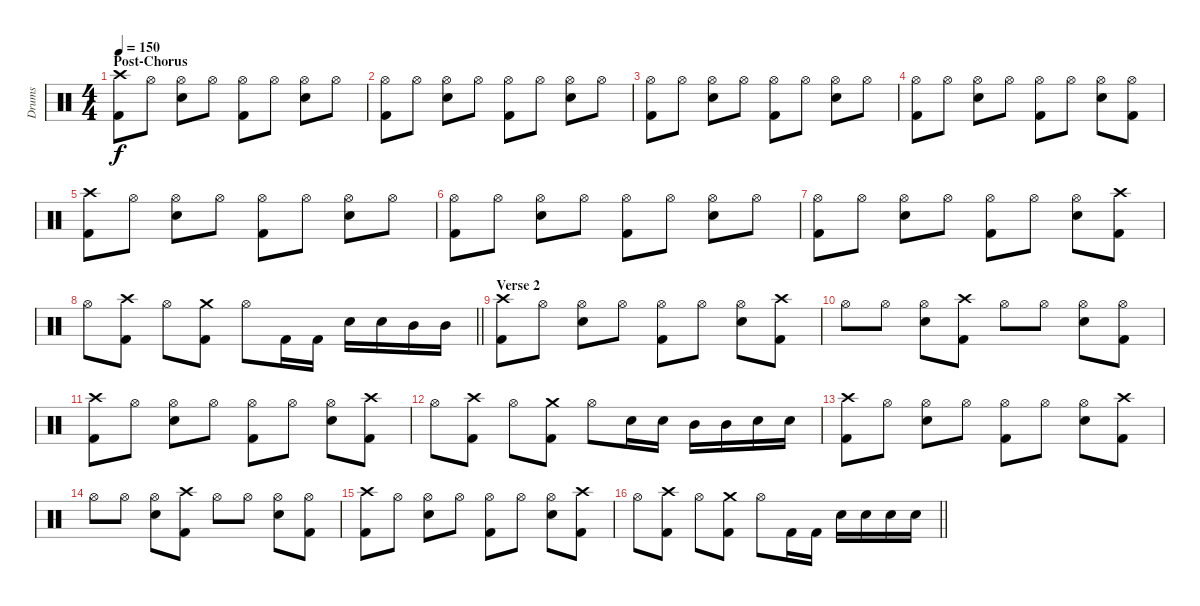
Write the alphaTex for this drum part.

\track ("Drums" "Drums") {instrument percussion}
\staff {score}
\articulation defaults
\ts (4 4)
\section ("" "Post-Chorus")
\tempo 150
\clef neutral
\ks c
("Crash high (hit)" "Kick (hit) 2").8{dy f volume 11} "Hi-Hat (open)".8 ("Hi-Hat (open)" "Electric Snare (hit)").8 "Hi-Hat (open)".8 ("Hi-Hat (open)" "Kick (hit) 2").8 "Hi-Hat (open)".8 ("Hi-Hat (open)" "Electric Snare (hit)").8 "Hi-Hat (open)".8 |
("Hi-Hat (open)" "Kick (hit) 2").8 "Hi-Hat (open)".8 ("Hi-Hat (open)" "Electric Snare (hit)").8 "Hi-Hat (open)".8 ("Hi-Hat (open)" "Kick (hit) 2").8 "Hi-Hat (open)".8 ("Hi-Hat (open)" "Electric Snare (hit)").8 "Hi-Hat (open)".8 |
("Hi-Hat (open)" "Kick (hit) 2").8 "Hi-Hat (open)".8 ("Hi-Hat (open)" "Electric Snare (hit)").8 "Hi-Hat (open)".8 ("Hi-Hat (open)" "Kick (hit) 2").8 "Hi-Hat (open)".8 ("Hi-Hat (open)" "Electric Snare (hit)").8 "Hi-Hat (open)".8 |
("Hi-Hat (open)" "Kick (hit) 2").8 "Hi-Hat (open)".8 ("Hi-Hat (open)" "Electric Snare (hit)").8 "Hi-Hat (open)".8 ("Hi-Hat (open)" "Kick (hit) 2").8 "Hi-Hat (open)".8 ("Hi-Hat (open)" "Electric Snare (hit)").8 ("Hi-Hat (open)" "Kick (hit) 2").8 |
("Crash high (hit)" "Kick (hit) 2").8 "Hi-Hat (open)".8 ("Hi-Hat (open)" "Electric Snare (hit)").8 "Hi-Hat (open)".8 ("Hi-Hat (open)" "Kick (hit) 2").8 "Hi-Hat (open)".8 ("Hi-Hat (open)" "Electric Snare (hit)").8 "Hi-Hat (open)".8 |
("Hi-Hat (open)" "Kick (hit) 2").8 "Hi-Hat (open)".8 ("Hi-Hat (open)" "Electric Snare (hit)").8 "Hi-Hat (open)".8 ("Hi-Hat (open)" "Kick (hit) 2").8 "Hi-Hat (open)".8 ("Hi-Hat (open)" "Electric Snare (hit)").8 "Hi-Hat (open)".8 |
("Hi-Hat (open)" "Kick (hit) 2").8 "Hi-Hat (open)".8 ("Hi-Hat (open)" "Electric Snare (hit)").8 "Hi-Hat (open)".8 ("Hi-Hat (open)" "Kick (hit) 2").8 "Hi-Hat (open)".8 ("Hi-Hat (open)" "Electric Snare (hit)").8 ("Crash high (hit)" "Kick (hit) 2").8 |
\barLineRight lightlight "Hi-Hat (open)".8
("Crash high (hit)" "Kick (hit) 2").8 "Hi-Hat (open)".8 ("Crash medium (hit)" "Kick (hit) 2").8 "Hi-Hat (open)".8 "Kick (hit) 2".16 "Kick (hit) 2".16 "Electric Snare (hit)".16 "Electric Snare (hit)".16 "Mid Tom (hit)".16 "Mid Tom (hit)".16 |
\section ("" "Verse 2")
("Crash high (hit)" "Kick (hit) 2").8 "Hi-Hat (open)".8 ("Hi-Hat (open)" "Electric Snare (hit)").8 "Hi-Hat (open)".8 ("Hi-Hat (open)" "Kick (hit) 2").8 "Hi-Hat (open)".8 ("Hi-Hat (open)" "Electric Snare (hit)").8 ("Crash high (hit)" "Kick (hit) 2").8 |
"Hi-Hat (open)".8 "Hi-Hat (open)".8 ("Hi-Hat (open)" "Electric Snare (hit)").8 ("Crash high (hit)" "Kick (hit) 2").8 "Hi-Hat (open)".8 "Hi-Hat (open)".8 ("Hi-Hat (open)" "Electric Snare (hit)").8 ("Hi-Hat (open)" "Kick (hit) 2").8 |
("Crash high (hit)" "Kick (hit) 2").8 "Hi-Hat (open)".8 ("Hi-Hat (open)" "Electric Snare (hit)").8 "Hi-Hat (open)".8 ("Hi-Hat (open)" "Kick (hit) 2").8 "Hi-Hat (open)".8 ("Hi-Hat (open)" "Electric Snare (hit)").8 ("Crash high (hit)" "Kick (hit) 2").8 |
"Hi-Hat (open)".8 ("Crash high (hit)" "Kick (hit) 2").8 "Hi-Hat (open)".8 ("Crash medium (hit)" "Kick (hit) 2").8 "Hi-Hat (open)".8 "Electric Snare (hit)".16 "Electric Snare (hit)".16 "Mid Tom (hit)".16 "Mid Tom (hit)".16 "Electric Snare (hit)".16 "Electric Snare (hit)".16 |
("Crash high (hit)" "Kick (hit) 2").8 "Hi-Hat (open)".8 ("Hi-Hat (open)" "Electric Snare (hit)").8 "Hi-Hat (open)".8 ("Hi-Hat (open)" "Kick (hit) 2").8 "Hi-Hat (open)".8 ("Hi-Hat (open)" "Electric Snare (hit)").8 ("Crash high (hit)" "Kick (hit) 2").8 |
"Hi-Hat (open)".8 "Hi-Hat (open)".8 ("Hi-Hat (open)" "Electric Snare (hit)").8 ("Crash high (hit)" "Kick (hit) 2").8 "Hi-Hat (open)".8 "Hi-Hat (open)".8 ("Hi-Hat (open)" "Electric Snare (hit)").8 ("Hi-Hat (open)" "Kick (hit) 2").8 |
("Crash high (hit)" "Kick (hit) 2").8 "Hi-Hat (open)".8 ("Hi-Hat (open)" "Electric Snare (hit)").8 "Hi-Hat (open)".8 ("Hi-Hat (open)" "Kick (hit) 2").8 "Hi-Hat (open)".8 ("Hi-Hat (open)" "Electric Snare (hit)").8 ("Crash high (hit)" "Kick (hit) 2").8 |
\barLineRight lightlight "Hi-Hat (open)".8
("Crash high (hit)" "Kick (hit) 2").8 "Hi-Hat (open)".8 ("Crash medium (hit)" "Kick (hit) 2").8 "Hi-Hat (open)".8 "Kick (hit) 2".16 "Kick (hit) 2".16 "Electric Snare (hit)".16 "Electric Snare (hit)".16 "Electric Snare (hit)".16 "Electric Snare (hit)".16
